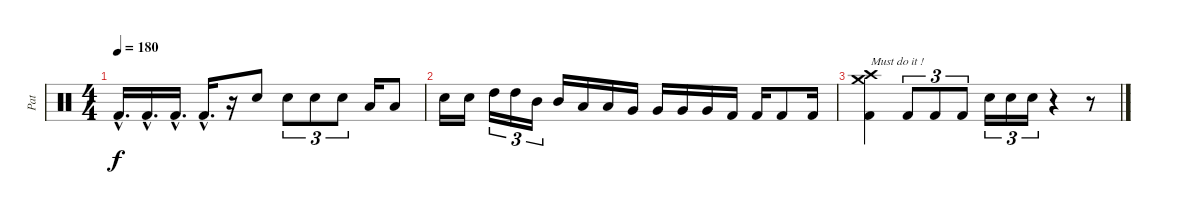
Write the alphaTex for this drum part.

\track ("Pat" "Pat") {instrument percussion}
\staff {score}
\articulation defaults
\ts (4 4)
\tempo 180
\clef neutral
\ks c "Kick (hit) 2"{hac}.16{d dy f} "Kick (hit) 2"{hac}.16{d} "Kick (hit) 2"{hac}.16{d} "Kick (hit) 2"{hac}.16{d}
r.16 "Electric Snare (hit)".8 "Electric Snare (hit)".8{tu (3 2)} "Electric Snare (hit)".8{tu (3 2)} "Electric Snare (hit)".8{tu (3 2)} "Low Tom (hit)".16 "Low Tom (hit)".8 |
"Electric Snare (hit)".16 "Electric Snare (hit)".16 "High Tom (hit)".16{tu (3 2)} "High Tom (hit)".16{tu (3 2)} "Mid Tom (hit)".16{tu (3 2)} "Mid Tom (hit)".16 "Low Tom (hit)".16 "Low Tom (hit)".16 "Very Low Tom (hit)".16 "Very Low Tom (hit)".16 "Very Low Tom (hit)".16 "Very Low Tom (hit)".16 "Kick (hit) 2".16 "Kick (hit) 2".16 "Kick (hit) 2".8 "Kick (hit) 2".16 |
("Crash high (hit)" "Crash medium (hit)" "Kick (hit) 2").4{txt "Must do it !"} "Kick (hit) 2".8{tu (3 2)} "Kick (hit) 2".8{tu (3 2)} "Kick (hit) 2".8{tu (3 2)} "Electric Snare (hit)".16{tu (3 2)} "Electric Snare (hit)".16{tu (3 2)} "Electric Snare (hit)".16{tu (3 2)} r.4 r.8
